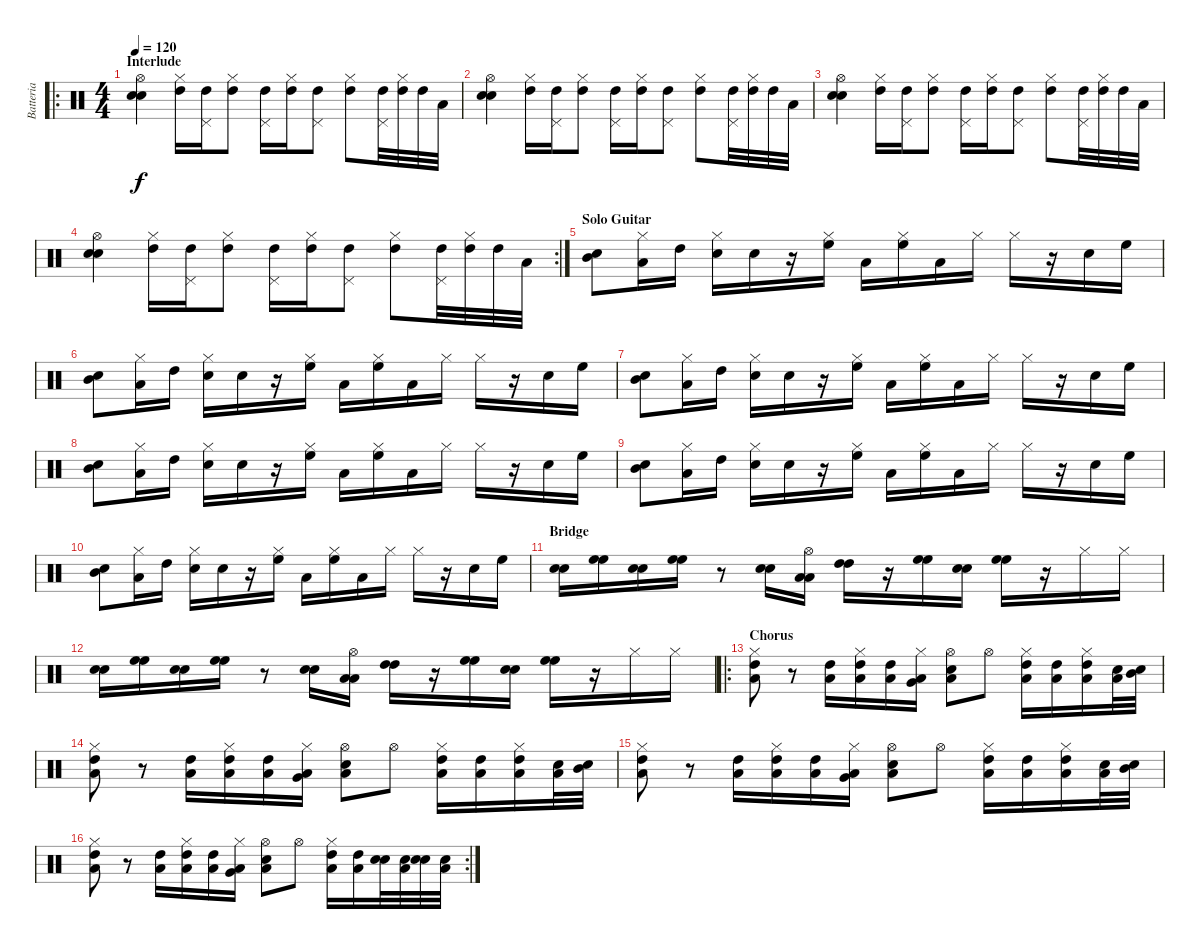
\track ("Batteria" "Batteria") {instrument percussion}
\staff {score}
\articulation defaults
\ro
\ts (4 4)
\section ("" "Interlude")
\tempo 120
\clef neutral
\ks c
("Electric Snare (hit)" "Electric Snare (hit)" "Hi-Hat (open)").4{dy f} ("High Tom (hit)" "Hi-Hat (closed)").16 ("High Tom (hit)" "Pedal Hi-Hat (hit)").16 ("High Tom (hit)" "Hi-Hat (closed)").8 ("High Tom (hit)" "Pedal Hi-Hat (hit)").16 ("High Tom (hit)" "Hi-Hat (closed)").16 ("High Tom (hit)" "Pedal Hi-Hat (hit)").8 ("High Tom (hit)" "Hi-Hat (closed)").8 ("High Tom (hit)" "Pedal Hi-Hat (hit)").32 ("High Tom (hit)" "Hi-Hat (closed)").32 "High Tom (hit)".32 "Low Tom (hit)".32 |
("Electric Snare (hit)" "Electric Snare (hit)" "Hi-Hat (open)").4 ("High Tom (hit)" "Hi-Hat (closed)").16 ("High Tom (hit)" "Pedal Hi-Hat (hit)").16 ("High Tom (hit)" "Hi-Hat (closed)").8 ("High Tom (hit)" "Pedal Hi-Hat (hit)").16 ("High Tom (hit)" "Hi-Hat (closed)").16 ("High Tom (hit)" "Pedal Hi-Hat (hit)").8 ("High Tom (hit)" "Hi-Hat (closed)").8 ("High Tom (hit)" "Pedal Hi-Hat (hit)").32 ("High Tom (hit)" "Hi-Hat (closed)").32 "High Tom (hit)".32 "Low Tom (hit)".32 |
("Electric Snare (hit)" "Electric Snare (hit)" "Hi-Hat (open)").4 ("High Tom (hit)" "Hi-Hat (closed)").16 ("High Tom (hit)" "Pedal Hi-Hat (hit)").16 ("High Tom (hit)" "Hi-Hat (closed)").8 ("High Tom (hit)" "Pedal Hi-Hat (hit)").16 ("High Tom (hit)" "Hi-Hat (closed)").16 ("High Tom (hit)" "Pedal Hi-Hat (hit)").8 ("High Tom (hit)" "Hi-Hat (closed)").8 ("High Tom (hit)" "Pedal Hi-Hat (hit)").32 ("High Tom (hit)" "Hi-Hat (closed)").32 "High Tom (hit)".32 "Low Tom (hit)".32 |
\rc 2
("Electric Snare (hit)" "Electric Snare (hit)" "Hi-Hat (open)").4 ("High Tom (hit)" "Hi-Hat (closed)").16 ("High Tom (hit)" "Pedal Hi-Hat (hit)").16 ("High Tom (hit)" "Hi-Hat (closed)").8 ("High Tom (hit)" "Pedal Hi-Hat (hit)").16 ("High Tom (hit)" "Hi-Hat (closed)").16 ("High Tom (hit)" "Pedal Hi-Hat (hit)").8 ("High Tom (hit)" "Hi-Hat (closed)").8 ("High Tom (hit)" "Pedal Hi-Hat (hit)").32 ("High Tom (hit)" "Hi-Hat (closed)").32 "High Tom (hit)".32 "Low Tom (hit)".32 |
\section ("" "Solo Guitar")
("Electric Snare (hit)" "Mid Tom (hit)").8 ("Low Tom (hit)" "Hi-Hat (closed)").16 "High Tom (hit)".16 ("Electric Snare (hit)" "Hi-Hat (closed)").16 "Electric Snare (hit)".16 r.16 ("High Floor Tom (hit)" "Hi-Hat (closed)").16 "Low Tom (hit)".16 ("High Floor Tom (hit)" "Hi-Hat (closed)").16 "Low Tom (hit)".16 "Hi-Hat (closed)".16 "Hi-Hat (closed)".16 r.16 "Electric Snare (hit)".16 "High Floor Tom (hit)".16 |
("Electric Snare (hit)" "Mid Tom (hit)").8 ("Low Tom (hit)" "Hi-Hat (closed)").16 "High Tom (hit)".16 ("Electric Snare (hit)" "Hi-Hat (closed)").16 "Electric Snare (hit)".16 r.16 ("High Floor Tom (hit)" "Hi-Hat (closed)").16 "Low Tom (hit)".16 ("High Floor Tom (hit)" "Hi-Hat (closed)").16 "Low Tom (hit)".16 "Hi-Hat (closed)".16 "Hi-Hat (closed)".16 r.16 "Electric Snare (hit)".16 "High Floor Tom (hit)".16 |
("Electric Snare (hit)" "Mid Tom (hit)").8 ("Low Tom (hit)" "Hi-Hat (closed)").16 "High Tom (hit)".16 ("Electric Snare (hit)" "Hi-Hat (closed)").16 "Electric Snare (hit)".16 r.16 ("High Floor Tom (hit)" "Hi-Hat (closed)").16 "Low Tom (hit)".16 ("High Floor Tom (hit)" "Hi-Hat (closed)").16 "Low Tom (hit)".16 "Hi-Hat (closed)".16 "Hi-Hat (closed)".16 r.16 "Electric Snare (hit)".16 "High Floor Tom (hit)".16 |
("Electric Snare (hit)" "Mid Tom (hit)").8 ("Low Tom (hit)" "Hi-Hat (closed)").16 "High Tom (hit)".16 ("Electric Snare (hit)" "Hi-Hat (closed)").16 "Electric Snare (hit)".16 r.16 ("High Floor Tom (hit)" "Hi-Hat (closed)").16 "Low Tom (hit)".16 ("High Floor Tom (hit)" "Hi-Hat (closed)").16 "Low Tom (hit)".16 "Hi-Hat (closed)".16 "Hi-Hat (closed)".16 r.16 "Electric Snare (hit)".16 "High Floor Tom (hit)".16 |
("Electric Snare (hit)" "Mid Tom (hit)").8 ("Low Tom (hit)" "Hi-Hat (closed)").16 "High Tom (hit)".16 ("Electric Snare (hit)" "Hi-Hat (closed)").16 "Electric Snare (hit)".16 r.16 ("High Floor Tom (hit)" "Hi-Hat (closed)").16 "Low Tom (hit)".16 ("High Floor Tom (hit)" "Hi-Hat (closed)").16 "Low Tom (hit)".16 "Hi-Hat (closed)".16 "Hi-Hat (closed)".16 r.16 "Electric Snare (hit)".16 "High Floor Tom (hit)".16 |
("Electric Snare (hit)" "Mid Tom (hit)").8 ("Low Tom (hit)" "Hi-Hat (closed)").16 "High Tom (hit)".16 ("Electric Snare (hit)" "Hi-Hat (closed)").16 "Electric Snare (hit)".16 r.16 ("High Floor Tom (hit)" "Hi-Hat (closed)").16 "Low Tom (hit)".16 ("High Floor Tom (hit)" "Hi-Hat (closed)").16 "Low Tom (hit)".16 "Hi-Hat (closed)".16 "Hi-Hat (closed)".16 r.16 "Electric Snare (hit)".16 "High Floor Tom (hit)".16 |
\section ("" "Bridge")
("Electric Snare (hit)" "Electric Snare (hit)").16 ("High Floor Tom (hit)" "High Floor Tom (hit)").16 ("Electric Snare (hit)" "Electric Snare (hit)").16 ("High Floor Tom (hit)" "High Floor Tom (hit)").16 r.8 ("Electric Snare (hit)" "Electric Snare (hit)").16 ("Low Tom (hit)" "Low Tom (hit)" "Hi-Hat (open)").16 ("High Tom (hit)" "High Tom (hit)").16 r.16 ("High Floor Tom (hit)" "High Floor Tom (hit)").16 ("Electric Snare (hit)" "Electric Snare (hit)").16 ("High Floor Tom (hit)" "High Floor Tom (hit)").16 r.16 "Hi-Hat (closed)".16 "Hi-Hat (closed)".16 |
("Electric Snare (hit)" "Electric Snare (hit)").16 ("High Floor Tom (hit)" "High Floor Tom (hit)").16 ("Electric Snare (hit)" "Electric Snare (hit)").16 ("High Floor Tom (hit)" "High Floor Tom (hit)").16 r.8 ("Electric Snare (hit)" "Electric Snare (hit)").16 ("Low Tom (hit)" "Low Tom (hit)" "Hi-Hat (open)").16 ("High Tom (hit)" "High Tom (hit)").16 r.16 ("High Floor Tom (hit)" "High Floor Tom (hit)").16 ("Electric Snare (hit)" "Electric Snare (hit)").16 ("High Floor Tom (hit)" "High Floor Tom (hit)").16 r.16 "Hi-Hat (closed)".16 "Hi-Hat (closed)".16 |
\ro
\section ("" "Chorus")
("Low Tom (hit)" "High Tom (hit)" "Hi-Hat (closed)").8 r.8 ("Low Tom (hit)" "High Tom (hit)").16 ("Low Tom (hit)" "High Tom (hit)" "Hi-Hat (closed)").16 ("Low Tom (hit)" "High Tom (hit)").16 ("Very Low Tom (hit)" "Low Tom (hit)" "Hi-Hat (closed)").16 ("Low Tom (hit)" "Electric Snare (hit)" "Hi-Hat (open)").8 "Hi-Hat (open)".8 ("Low Tom (hit)" "High Tom (hit)" "Hi-Hat (closed)").16 ("Low Tom (hit)" "High Tom (hit)").16 ("Low Tom (hit)" "High Tom (hit)" "Hi-Hat (closed)").16 ("Electric Snare (hit)" "Low Tom (hit)").32 ("Electric Snare (hit)" "Mid Tom (hit)").32 |
("Low Tom (hit)" "High Tom (hit)" "Hi-Hat (closed)").8 r.8 ("Low Tom (hit)" "High Tom (hit)").16 ("Low Tom (hit)" "High Tom (hit)" "Hi-Hat (closed)").16 ("Low Tom (hit)" "High Tom (hit)").16 ("Very Low Tom (hit)" "Low Tom (hit)" "Hi-Hat (closed)").16 ("Low Tom (hit)" "Electric Snare (hit)" "Hi-Hat (open)").8 "Hi-Hat (open)".8 ("Low Tom (hit)" "High Tom (hit)" "Hi-Hat (closed)").16 ("Low Tom (hit)" "High Tom (hit)").16 ("Low Tom (hit)" "High Tom (hit)" "Hi-Hat (closed)").16 ("Electric Snare (hit)" "Low Tom (hit)").32 ("Electric Snare (hit)" "Mid Tom (hit)").32 |
("Low Tom (hit)" "High Tom (hit)" "Hi-Hat (closed)").8 r.8 ("Low Tom (hit)" "High Tom (hit)").16 ("Low Tom (hit)" "High Tom (hit)" "Hi-Hat (closed)").16 ("Low Tom (hit)" "High Tom (hit)").16 ("Very Low Tom (hit)" "Low Tom (hit)" "Hi-Hat (closed)").16 ("Low Tom (hit)" "Electric Snare (hit)" "Hi-Hat (open)").8 "Hi-Hat (open)".8 ("Low Tom (hit)" "High Tom (hit)" "Hi-Hat (closed)").16 ("Low Tom (hit)" "High Tom (hit)").16 ("Low Tom (hit)" "High Tom (hit)" "Hi-Hat (closed)").16 ("Electric Snare (hit)" "Low Tom (hit)").32 ("Electric Snare (hit)" "Mid Tom (hit)").32 |
\rc 2
("Low Tom (hit)" "High Tom (hit)" "Hi-Hat (closed)").8 r.8 ("Low Tom (hit)" "High Tom (hit)").16 ("Low Tom (hit)" "High Tom (hit)" "Hi-Hat (closed)").16 ("Low Tom (hit)" "High Tom (hit)").16 ("Very Low Tom (hit)" "Low Tom (hit)" "Hi-Hat (closed)").16 ("Low Tom (hit)" "Electric Snare (hit)" "Hi-Hat (open)").8 "Hi-Hat (open)".8 ("Low Tom (hit)" "High Tom (hit)" "Hi-Hat (closed)").16 ("Low Tom (hit)" "High Tom (hit)").16 ("Electric Snare (hit)" "Electric Snare (hit)").32 ("Electric Snare (hit)" "Low Tom (hit)").32 ("Electric Snare (hit)" "Electric Snare (hit)").32 ("Electric Snare (hit)" "Low Tom (hit)").32
